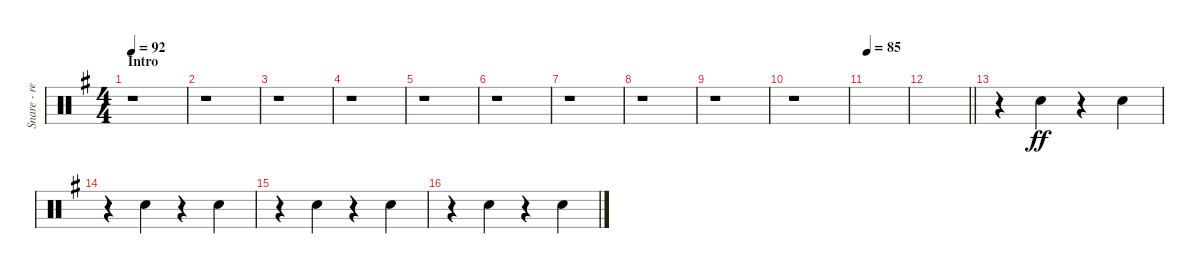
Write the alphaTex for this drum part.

\track ("Snare - reverb" "Snare - re") {instrument percussion}
\staff {score}
\articulation defaults
\ts (4 4)
\section ("" "Intro")
\tempo 92
\clef neutral
\ks g
r.1{dy ff volume 15} |
r.1 |
r.1 |
r.1 |
r.1 |
r.1 |
r.1 |
r.1 |
r.1 |
r.1 |
\tempo 85
|
\barLineRight lightlight
|
r.4{beam merge} "Snare (hit) 2".4 r.4{beam merge} "Snare (hit) 2".4 |
r.4{beam merge} "Snare (hit) 2".4 r.4{beam merge} "Snare (hit) 2".4 |
r.4{beam merge} "Snare (hit) 2".4 r.4{beam merge} "Snare (hit) 2".4 |
r.4{beam merge} "Snare (hit) 2".4 r.4{beam merge} "Snare (hit) 2".4
